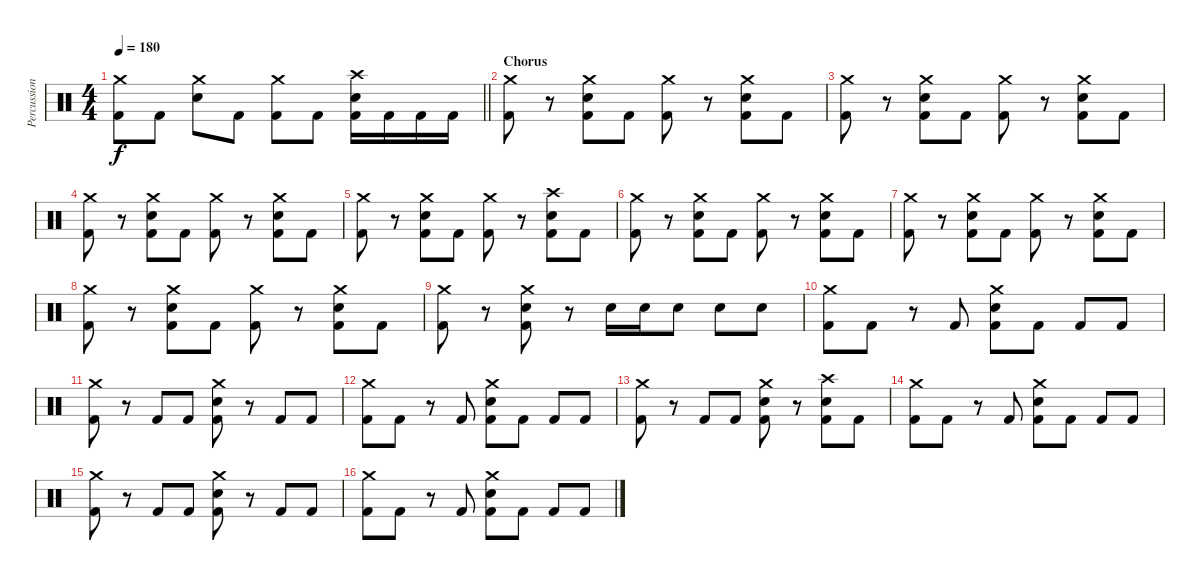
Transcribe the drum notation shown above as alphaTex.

\track ("Percussion" "Percussion") {instrument percussion}
\staff {score}
\articulation defaults
\ts (4 4)
\tempo 180
\clef neutral
\barLineRight lightlight
\ks c
("Crash medium (hit)" "Kick (hit) 2").8{dy f} "Kick (hit) 2".8 ("Crash medium (hit)" "Electric Snare (hit)").8 "Kick (hit) 2".8 ("Crash medium (hit)" "Kick (hit) 2").8 "Kick (hit) 2".8 ("Crash high (hit)" "Electric Snare (hit)" "Kick (hit) 2").16 "Kick (hit) 2".16 "Kick (hit) 2".16 "Kick (hit) 2".16 |
\section ("" "Chorus")
("Crash medium (hit)" "Kick (hit) 2").8 r.8 ("Crash medium (hit)" "Electric Snare (hit)" "Kick (hit) 2").8 "Kick (hit) 2".8 ("Crash medium (hit)" "Kick (hit) 2").8 r.8 ("Crash medium (hit)" "Electric Snare (hit)" "Kick (hit) 2").8 "Kick (hit) 2".8 |
("Crash medium (hit)" "Kick (hit) 2").8 r.8 ("Crash medium (hit)" "Electric Snare (hit)" "Kick (hit) 2").8 "Kick (hit) 2".8 ("Crash medium (hit)" "Kick (hit) 2").8 r.8 ("Crash medium (hit)" "Electric Snare (hit)" "Kick (hit) 2").8 "Kick (hit) 2".8 |
("Crash medium (hit)" "Kick (hit) 2").8 r.8 ("Crash medium (hit)" "Electric Snare (hit)" "Kick (hit) 2").8 "Kick (hit) 2".8 ("Crash medium (hit)" "Kick (hit) 2").8 r.8 ("Crash medium (hit)" "Electric Snare (hit)" "Kick (hit) 2").8 "Kick (hit) 2".8 |
("Crash medium (hit)" "Kick (hit) 2").8 r.8 ("Crash medium (hit)" "Electric Snare (hit)" "Kick (hit) 2").8 "Kick (hit) 2".8 ("Crash medium (hit)" "Kick (hit) 2").8 r.8 ("Crash high (hit)" "Electric Snare (hit)" "Kick (hit) 2").8 "Kick (hit) 2".8 |
("Crash medium (hit)" "Kick (hit) 2").8 r.8 ("Crash medium (hit)" "Electric Snare (hit)" "Kick (hit) 2").8 "Kick (hit) 2".8 ("Crash medium (hit)" "Kick (hit) 2").8 r.8 ("Crash medium (hit)" "Electric Snare (hit)" "Kick (hit) 2").8 "Kick (hit) 2".8 |
("Crash medium (hit)" "Kick (hit) 2").8 r.8 ("Crash medium (hit)" "Electric Snare (hit)" "Kick (hit) 2").8 "Kick (hit) 2".8 ("Crash medium (hit)" "Kick (hit) 2").8 r.8 ("Crash medium (hit)" "Electric Snare (hit)" "Kick (hit) 2").8 "Kick (hit) 2".8 |
("Crash medium (hit)" "Kick (hit) 2").8 r.8 ("Crash medium (hit)" "Electric Snare (hit)" "Kick (hit) 2").8 "Kick (hit) 2".8 ("Crash medium (hit)" "Kick (hit) 2").8 r.8 ("Crash medium (hit)" "Electric Snare (hit)" "Kick (hit) 2").8 "Kick (hit) 2".8 |
("Crash medium (hit)" "Kick (hit) 2").8 r.8 ("Crash medium (hit)" "Electric Snare (hit)" "Kick (hit) 2").8 r.8 "Electric Snare (hit)".16 "Electric Snare (hit)".16 "Electric Snare (hit)".8 "Electric Snare (hit)".8 "Electric Snare (hit)".8 |
("Crash medium (hit)" "Kick (hit) 2").8 "Kick (hit) 2".8 r.8 "Kick (hit) 2".8 ("Crash medium (hit)" "Electric Snare (hit)" "Kick (hit) 2").8 "Kick (hit) 2".8 "Kick (hit) 2".8 "Kick (hit) 2".8 |
("Crash medium (hit)" "Kick (hit) 2").8 r.8 "Kick (hit) 2".8 "Kick (hit) 2".8 ("Crash medium (hit)" "Electric Snare (hit)" "Kick (hit) 2").8 r.8 "Kick (hit) 2".8 "Kick (hit) 2".8 |
("Crash medium (hit)" "Kick (hit) 2").8 "Kick (hit) 2".8 r.8 "Kick (hit) 2".8 ("Crash medium (hit)" "Electric Snare (hit)" "Kick (hit) 2").8 "Kick (hit) 2".8 "Kick (hit) 2".8 "Kick (hit) 2".8 |
("Crash medium (hit)" "Kick (hit) 2").8 r.8 "Kick (hit) 2".8 "Kick (hit) 2".8 ("Crash medium (hit)" "Electric Snare (hit)" "Kick (hit) 2").8 r.8 ("Crash high (hit)" "Electric Snare (hit)" "Kick (hit) 2").8 "Kick (hit) 2".8 |
("Crash medium (hit)" "Kick (hit) 2").8 "Kick (hit) 2".8 r.8 "Kick (hit) 2".8 ("Crash medium (hit)" "Electric Snare (hit)" "Kick (hit) 2").8 "Kick (hit) 2".8 "Kick (hit) 2".8 "Kick (hit) 2".8 |
("Crash medium (hit)" "Kick (hit) 2").8 r.8 "Kick (hit) 2".8 "Kick (hit) 2".8 ("Crash medium (hit)" "Electric Snare (hit)" "Kick (hit) 2").8 r.8 "Kick (hit) 2".8 "Kick (hit) 2".8 |
("Crash medium (hit)" "Kick (hit) 2").8 "Kick (hit) 2".8 r.8 "Kick (hit) 2".8 ("Crash medium (hit)" "Electric Snare (hit)" "Kick (hit) 2").8 "Kick (hit) 2".8 "Kick (hit) 2".8 "Kick (hit) 2".8
